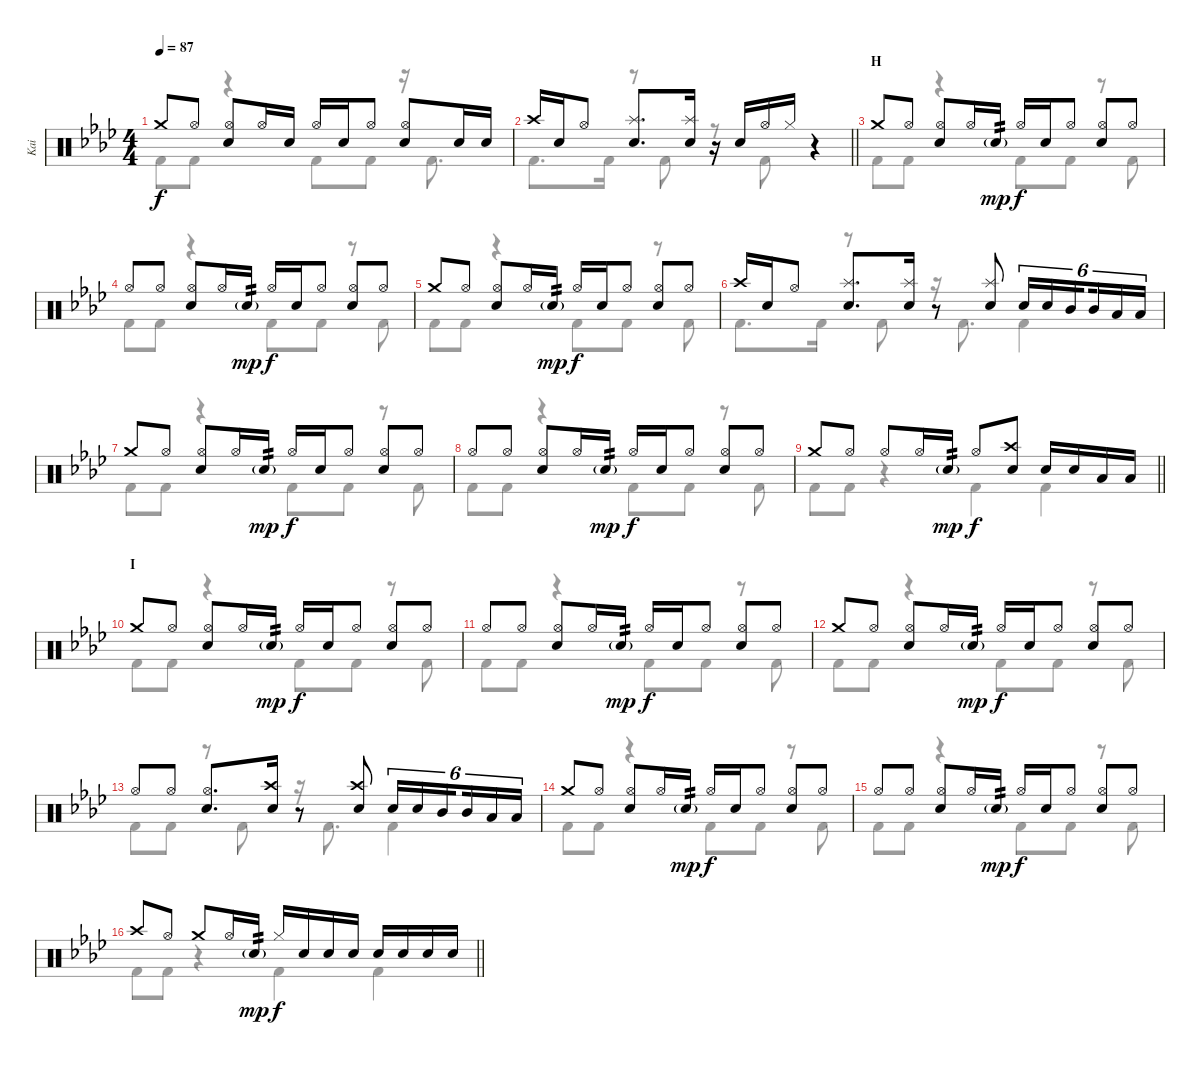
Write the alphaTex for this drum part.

\track ("Kai" "Kai") {instrument percussion}
\staff {score}
\articulation defaults
\voice
\ts (4 4)
\tempo 87
\clef neutral
\ks ab "Crash medium (hit)".8{dy f} "Hi-Hat (open)".8
("Hi-Hat (open)" "Snare (hit) 2").8 "Hi-Hat (open)".16 "Snare (hit) 2".16 "Hi-Hat (open)".16 "Snare (hit) 2".16 "Hi-Hat (open)".8 ("Hi-Hat (open)" "Snare (hit) 2").8 "Snare (hit) 2".16 "Snare (hit) 2".16 |
\barLineRight lightlight "Crash high (hit)".16 "Snare (hit) 2".16 "Hi-Hat (open)".8
("Splash (hit)" "Snare (hit) 2").8{d} ("Splash (hit)" "Snare (hit) 2").16 r.16 "Snare (hit) 2".16 "Hi-Hat (open)".16 "Hi-Hat (closed)".16 r.4 |
\section ("" "H")
"Crash medium (hit)".8 "Hi-Hat (open)".8 ("Hi-Hat (open)" "Snare (hit) 2").8 "Hi-Hat (open)".16 "Snare (hit) 2"{g}.16{tp 2 dy mp} "Hi-Hat (open)".16{dy f} "Snare (hit) 2".16 "Hi-Hat (open)".8 ("Hi-Hat (open)" "Snare (hit) 2").8 "Hi-Hat (open)".8 |
"Hi-Hat (open)".8 "Hi-Hat (open)".8 ("Hi-Hat (open)" "Snare (hit) 2").8 "Hi-Hat (open)".16 "Snare (hit) 2"{g}.16{tp 2 dy mp} "Hi-Hat (open)".16{dy f} "Snare (hit) 2".16 "Hi-Hat (open)".8 ("Hi-Hat (open)" "Snare (hit) 2").8 "Hi-Hat (open)".8 |
"Crash medium (hit)".8 "Hi-Hat (open)".8 ("Hi-Hat (open)" "Snare (hit) 2").8 "Hi-Hat (open)".16 "Snare (hit) 2"{g}.16{tp 2 dy mp} "Hi-Hat (open)".16{dy f} "Snare (hit) 2".16 "Hi-Hat (open)".8 ("Hi-Hat (open)" "Snare (hit) 2").8 "Hi-Hat (open)".8 |
"Crash high (hit)".16 "Snare (hit) 2".16 "Hi-Hat (open)".8 ("Splash (hit)" "Snare (hit) 2").8{d} ("Splash (hit)" "Snare (hit) 2").16 r.8 ("Splash (hit)" "Snare (hit) 2").8 "Snare (hit) 2".16{tu (6 4)} "Snare (hit) 2".16{tu (6 4)} "Mid Tom (hit)".16{tu (6 4) beam splitsecondary} "Mid Tom (hit)".16{tu (6 4)} "Low Tom (hit)".16{tu (6 4)} "Low Tom (hit)".16{tu (6 4)} |
"Crash medium (hit)".8 "Hi-Hat (open)".8 ("Hi-Hat (open)" "Snare (hit) 2").8 "Hi-Hat (open)".16 "Snare (hit) 2"{g}.16{tp 2 dy mp} "Hi-Hat (open)".16{dy f} "Snare (hit) 2".16 "Hi-Hat (open)".8 ("Hi-Hat (open)" "Snare (hit) 2").8 "Hi-Hat (open)".8 |
"Hi-Hat (open)".8 "Hi-Hat (open)".8 ("Hi-Hat (open)" "Snare (hit) 2").8 "Hi-Hat (open)".16 "Snare (hit) 2"{g}.16{tp 2 dy mp} "Hi-Hat (open)".16{dy f} "Snare (hit) 2".16 "Hi-Hat (open)".8 ("Hi-Hat (open)" "Snare (hit) 2").8 "Hi-Hat (open)".8 |
\barLineRight lightlight "Crash medium (hit)".8 "Hi-Hat (open)".8 "Hi-Hat (open)".8 "Hi-Hat (open)".16 "Snare (hit) 2"{g}.16{tp 2 dy mp} "Hi-Hat (open)".8{dy f}
("Crash high (hit)" "Snare (hit) 2").8 "Snare (hit) 2".16 "Snare (hit) 2".16 "Low Tom (hit)".16 "Low Tom (hit)".16 |
\section ("" "I")
"Crash medium (hit)".8 "Hi-Hat (open)".8 ("Hi-Hat (open)" "Snare (hit) 2").8 "Hi-Hat (open)".16 "Snare (hit) 2"{g}.16{tp 2 dy mp} "Hi-Hat (open)".16{dy f} "Snare (hit) 2".16 "Hi-Hat (open)".8 ("Hi-Hat (open)" "Snare (hit) 2").8 "Hi-Hat (open)".8 |
"Hi-Hat (open)".8 "Hi-Hat (open)".8 ("Hi-Hat (open)" "Snare (hit) 2").8 "Hi-Hat (open)".16 "Snare (hit) 2"{g}.16{tp 2 dy mp} "Hi-Hat (open)".16{dy f} "Snare (hit) 2".16 "Hi-Hat (open)".8 ("Hi-Hat (open)" "Snare (hit) 2").8 "Hi-Hat (open)".8 |
"Crash medium (hit)".8 "Hi-Hat (open)".8 ("Hi-Hat (open)" "Snare (hit) 2").8 "Hi-Hat (open)".16 "Snare (hit) 2"{g}.16{tp 2 dy mp} "Hi-Hat (open)".16{dy f} "Snare (hit) 2".16 "Hi-Hat (open)".8 ("Hi-Hat (open)" "Snare (hit) 2").8 "Hi-Hat (open)".8 |
"Hi-Hat (open)".8 "Hi-Hat (open)".8 ("Hi-Hat (open)" "Snare (hit) 2").8{d} ("Crash high (hit)" "Snare (hit) 2").16 r.8 ("Crash high (hit)" "Snare (hit) 2").8 "Snare (hit) 2".16{tu (6 4)} "Snare (hit) 2".16{tu (6 4)} "Mid Tom (hit)".16{tu (6 4) beam splitsecondary} "Mid Tom (hit)".16{tu (6 4)} "Low Tom (hit)".16{tu (6 4)} "Low Tom (hit)".16{tu (6 4)} |
"Crash medium (hit)".8 "Hi-Hat (open)".8 ("Hi-Hat (open)" "Snare (hit) 2").8 "Hi-Hat (open)".16 "Snare (hit) 2"{g}.16{tp 2 dy mp} "Hi-Hat (open)".16{dy f} "Snare (hit) 2".16 "Hi-Hat (open)".8 ("Hi-Hat (open)" "Snare (hit) 2").8 "Hi-Hat (open)".8 |
"Hi-Hat (open)".8 "Hi-Hat (open)".8 ("Hi-Hat (open)" "Snare (hit) 2").8 "Hi-Hat (open)".16 "Snare (hit) 2"{g}.16{tp 2 dy mp} "Hi-Hat (open)".16{dy f} "Snare (hit) 2".16 "Hi-Hat (open)".8 ("Hi-Hat (open)" "Snare (hit) 2").8 "Hi-Hat (open)".8 |
\barLineRight lightlight "Crash high (hit)".8 "Hi-Hat (open)".8 "Crash medium (hit)".8 "Hi-Hat (open)".16 "Snare (hit) 2"{g}.16{tp 2 dy mp} "Hi-Hat (closed)".16{dy f} "Snare (hit) 2".16 "Snare (hit) 2".16 "Snare (hit) 2".16 "Snare (hit) 2".16 "Snare (hit) 2".16 "Snare (hit) 2".16 "Snare (hit) 2".16
\voice
\clef neutral
\ottava regular
\simile none
\ks ab "Kick (hit) 2".8{dy f} "Kick (hit) 2".8
r.4 "Kick (hit) 2".8 "Kick (hit) 2".8 r.16 "Kick (hit) 2".8{d} |
\barLineRight lightlight "Kick (hit) 2".8{d} "Kick (hit) 2".16
r.8 "Kick (hit) 2".8 r.8 "Kick (hit) 2".8 r.4 |
"Kick (hit) 2".8 "Kick (hit) 2".8 r.4 "Kick (hit) 2".8 "Kick (hit) 2".8 r.8 "Kick (hit) 2".8 |
"Kick (hit) 2".8 "Kick (hit) 2".8 r.4 "Kick (hit) 2".8 "Kick (hit) 2".8 r.8 "Kick (hit) 2".8 |
"Kick (hit) 2".8 "Kick (hit) 2".8 r.4 "Kick (hit) 2".8 "Kick (hit) 2".8 r.8 "Kick (hit) 2".8 |
"Kick (hit) 2".8{d} "Kick (hit) 2".16 r.8 "Kick (hit) 2".8 r.16 "Kick (hit) 2".8{d} "Kick (hit) 2".4 |
"Kick (hit) 2".8 "Kick (hit) 2".8 r.4 "Kick (hit) 2".8 "Kick (hit) 2".8 r.8 "Kick (hit) 2".8 |
"Kick (hit) 2".8 "Kick (hit) 2".8 r.4 "Kick (hit) 2".8 "Kick (hit) 2".8 r.8 "Kick (hit) 2".8 |
\barLineRight lightlight "Kick (hit) 2".8 "Kick (hit) 2".8
r.4 "Kick (hit) 2".4 "Kick (hit) 2".4 |
"Kick (hit) 2".8 "Kick (hit) 2".8 r.4 "Kick (hit) 2".8 "Kick (hit) 2".8 r.8 "Kick (hit) 2".8 |
"Kick (hit) 2".8 "Kick (hit) 2".8 r.4 "Kick (hit) 2".8 "Kick (hit) 2".8 r.8 "Kick (hit) 2".8 |
"Kick (hit) 2".8 "Kick (hit) 2".8 r.4 "Kick (hit) 2".8 "Kick (hit) 2".8 r.8 "Kick (hit) 2".8 |
"Kick (hit) 2".8 "Kick (hit) 2".8 r.8 "Kick (hit) 2".8 r.16 "Kick (hit) 2".8{d} "Kick (hit) 2".4 |
"Kick (hit) 2".8 "Kick (hit) 2".8 r.4 "Kick (hit) 2".8 "Kick (hit) 2".8 r.8 "Kick (hit) 2".8 |
"Kick (hit) 2".8 "Kick (hit) 2".8 r.4 "Kick (hit) 2".8 "Kick (hit) 2".8 r.8 "Kick (hit) 2".8 |
\barLineRight lightlight "Kick (hit) 2".8 "Kick (hit) 2".8
r.4 "Kick (hit) 2".4 "Kick (hit) 2".4
